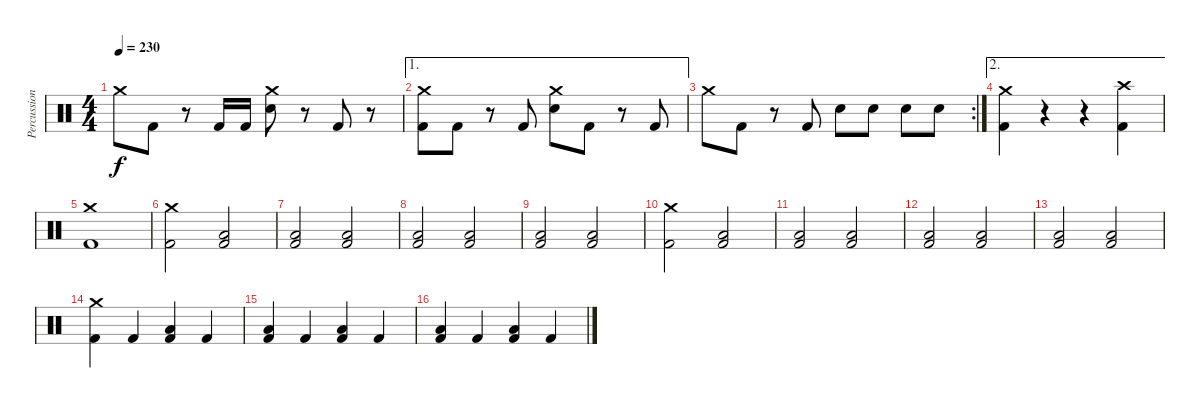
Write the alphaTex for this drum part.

\track ("Percussions" "Percussion") {instrument percussion}
\staff {score}
\articulation defaults
\ts (4 4)
\tempo 230
\clef neutral
\ks c "Crash medium (hit)".8{dy f} "Kick (hit) 2".8
r.8 "Kick (hit) 2".16 "Kick (hit) 2".16 ("Electric Snare (hit)" "Crash medium (hit)").8 r.8 "Kick (hit) 2".8 r.8 |
\ae 1
("Kick (hit) 2" "Crash medium (hit)").8 "Kick (hit) 2".8 r.8 "Kick (hit) 2".8 ("Electric Snare (hit)" "Crash medium (hit)").8 "Kick (hit) 2".8 r.8 "Kick (hit) 2".8 |
\rc 2 "Crash medium (hit)".8 "Kick (hit) 2".8
r.8 "Kick (hit) 2".8 "Electric Snare (hit)".8 "Electric Snare (hit)".8 "Electric Snare (hit)".8 "Electric Snare (hit)".8 |
\ae 2
("Kick (hit) 2" "Crash medium (hit)").4 r.4 r.4 ("Kick (hit) 2" "Crash high (hit)").4 |
("Kick (hit) 2" "Crash medium (hit)").1 |
("Kick (hit) 2" "Crash medium (hit)").2 ("Kick (hit) 2" "Low Floor Tom (hit)").2 |
("Kick (hit) 2" "Low Floor Tom (hit)").2 ("Kick (hit) 2" "Low Floor Tom (hit)").2 |
("Kick (hit) 2" "Low Floor Tom (hit)").2 ("Kick (hit) 2" "Low Floor Tom (hit)").2 |
("Kick (hit) 2" "Low Floor Tom (hit)").2 ("Kick (hit) 2" "Low Floor Tom (hit)").2 |
("Kick (hit) 2" "Crash medium (hit)").2 ("Kick (hit) 2" "Low Floor Tom (hit)").2 |
("Kick (hit) 2" "Low Floor Tom (hit)").2 ("Kick (hit) 2" "Low Floor Tom (hit)").2 |
("Kick (hit) 2" "Low Floor Tom (hit)").2 ("Kick (hit) 2" "Low Floor Tom (hit)").2 |
("Kick (hit) 2" "Low Floor Tom (hit)").2 ("Kick (hit) 2" "Low Floor Tom (hit)").2 |
("Kick (hit) 2" "Crash medium (hit)").4 "Kick (hit) 2".4 ("Kick (hit) 2" "Low Floor Tom (hit)").4 "Kick (hit) 2".4 |
("Kick (hit) 2" "Low Floor Tom (hit)").4 "Kick (hit) 2".4 ("Kick (hit) 2" "Low Floor Tom (hit)").4 "Kick (hit) 2".4 |
("Kick (hit) 2" "Low Floor Tom (hit)").4 "Kick (hit) 2".4 ("Kick (hit) 2" "Low Floor Tom (hit)").4 "Kick (hit) 2".4
